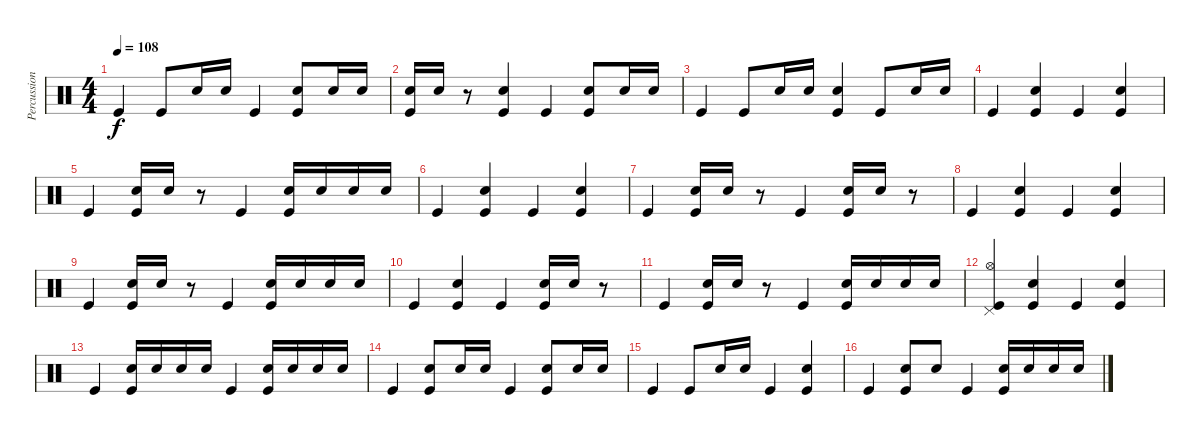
\track ("Percussion" "Percussion") {instrument percussion}
\staff {score}
\articulation defaults
\ts (4 4)
\tempo 108
\clef neutral
\ks c "Kick (hit)".4{dy f} "Kick (hit)".8 "Snare (hit) 2".16 "Snare (hit) 2".16 "Kick (hit)".4
("Snare (hit) 2" "Kick (hit)").8 "Snare (hit) 2".16 "Snare (hit) 2".16 |
("Snare (hit) 2" "Kick (hit)").16 "Snare (hit) 2".16 r.8 ("Snare (hit) 2" "Kick (hit)").4 "Kick (hit)".4 ("Snare (hit) 2" "Kick (hit)").8 "Snare (hit) 2".16 "Snare (hit) 2".16 |
"Kick (hit)".4 "Kick (hit)".8 "Snare (hit) 2".16 "Snare (hit) 2".16 ("Snare (hit) 2" "Kick (hit)").4 "Kick (hit)".8 "Snare (hit) 2".16 "Snare (hit) 2".16 |
"Kick (hit)".4 ("Snare (hit) 2" "Kick (hit)").4 "Kick (hit)".4 ("Snare (hit) 2" "Kick (hit)").4 |
"Kick (hit)".4 ("Snare (hit) 2" "Kick (hit)").16 "Snare (hit) 2".16 r.8 "Kick (hit)".4 ("Snare (hit) 2" "Kick (hit)").16 "Snare (hit) 2".16 "Snare (hit) 2".16 "Snare (hit) 2".16 |
"Kick (hit)".4 ("Snare (hit) 2" "Kick (hit)").4 "Kick (hit)".4 ("Snare (hit) 2" "Kick (hit)").4 |
"Kick (hit)".4 ("Snare (hit) 2" "Kick (hit)").16 "Snare (hit) 2".16 r.8 "Kick (hit)".4 ("Snare (hit) 2" "Kick (hit)").16 "Snare (hit) 2".16 r.8 |
"Kick (hit)".4 ("Snare (hit) 2" "Kick (hit)").4 "Kick (hit)".4 ("Snare (hit) 2" "Kick (hit)").4 |
"Kick (hit)".4 ("Snare (hit) 2" "Kick (hit)").16 "Snare (hit) 2".16 r.8 "Kick (hit)".4 ("Snare (hit) 2" "Kick (hit)").16 "Snare (hit) 2".16 "Snare (hit) 2".16 "Snare (hit) 2".16 |
"Kick (hit)".4 ("Snare (hit) 2" "Kick (hit)").4 "Kick (hit)".4 ("Snare (hit) 2" "Kick (hit)").16 "Snare (hit) 2".16 r.8 |
"Kick (hit)".4 ("Snare (hit) 2" "Kick (hit)").16 "Snare (hit) 2".16 r.8 "Kick (hit)".4 ("Snare (hit) 2" "Kick (hit)").16 "Snare (hit) 2".16 "Snare (hit) 2".16 "Snare (hit) 2".16 |
("Hi-Hat (open)" "Pedal Hi-Hat (hit)" "Kick (hit)").4 ("Snare (hit) 2" "Kick (hit)").4 "Kick (hit)".4 ("Snare (hit) 2" "Kick (hit)").4 |
"Kick (hit)".4 ("Snare (hit) 2" "Kick (hit)").16 "Snare (hit) 2".16 "Snare (hit) 2".16 "Snare (hit) 2".16 "Kick (hit)".4 ("Snare (hit) 2" "Kick (hit)").16 "Snare (hit) 2".16 "Snare (hit) 2".16 "Snare (hit) 2".16 |
"Kick (hit)".4 ("Snare (hit) 2" "Kick (hit)").8 "Snare (hit) 2".16 "Snare (hit) 2".16 "Kick (hit)".4 ("Snare (hit) 2" "Kick (hit)").8 "Snare (hit) 2".16 "Snare (hit) 2".16 |
"Kick (hit)".4 "Kick (hit)".8 "Snare (hit) 2".16 "Snare (hit) 2".16 "Kick (hit)".4 ("Snare (hit) 2" "Kick (hit)").4 |
"Kick (hit)".4 ("Snare (hit) 2" "Kick (hit)").8 "Snare (hit) 2".8 "Kick (hit)".4 ("Snare (hit) 2" "Kick (hit)").16 "Snare (hit) 2".16 "Snare (hit) 2".16 "Snare (hit) 2".16
